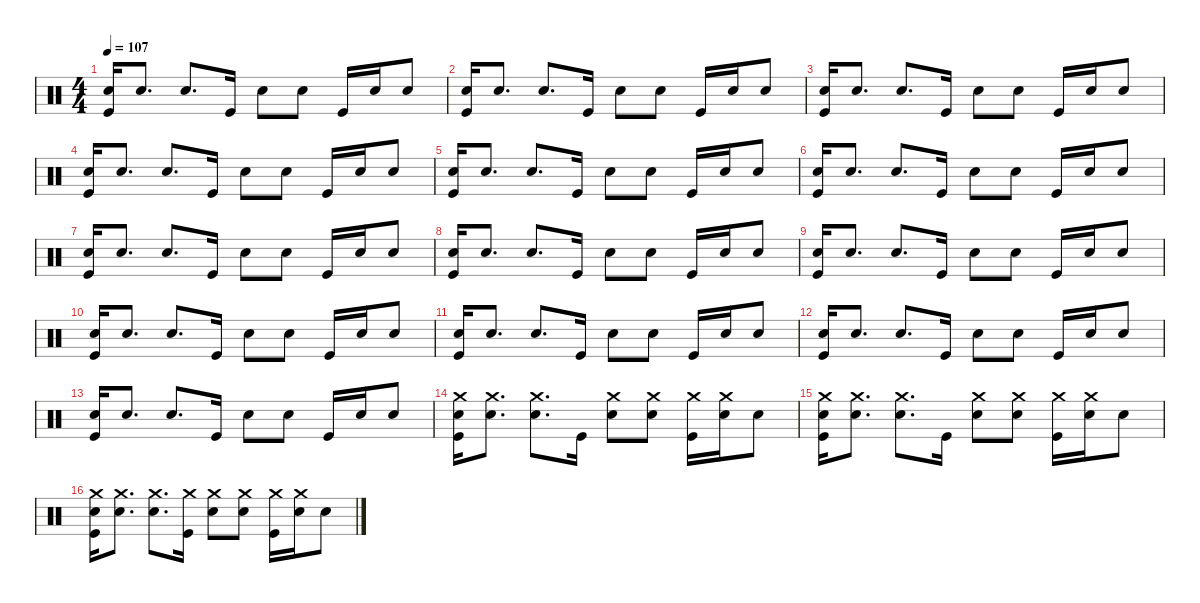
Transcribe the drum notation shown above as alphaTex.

\defaultSystemsLayout 4
\hideDynamics
\bracketExtendMode nobrackets
\singleTrackTrackNamePolicy hidden
\multiTrackTrackNamePolicy hidden
\firstSystemTrackNameMode fullname
\firstSystemTrackNameOrientation horizontal
\otherSystemsTrackNameOrientation horizontal
\track ("Mitch" "drm.") {instrument percussion}
\staff {score}
\articulation defaults
\ts (4 4)
\tempo 107
\clef neutral
\ks c
("Snare (hit) 2" "Kick (hit)").16{dy f beam Up} "Snare (hit) 2".8{d beam Up} "Snare (hit) 2".8{d beam Up} "Kick (hit)".16{beam Up} "Snare (hit) 2".8{beam Down} "Snare (hit) 2".8{beam Down} "Kick (hit)".16{beam Up} "Snare (hit) 2".16{beam Up} "Snare (hit) 2".8{beam Up} |
("Snare (hit) 2" "Kick (hit)").16{beam Up} "Snare (hit) 2".8{d beam Up} "Snare (hit) 2".8{d beam Up} "Kick (hit)".16{beam Up} "Snare (hit) 2".8{beam Down} "Snare (hit) 2".8{beam Down} "Kick (hit)".16{beam Up} "Snare (hit) 2".16{beam Up} "Snare (hit) 2".8{beam Up} |
("Snare (hit) 2" "Kick (hit)").16{beam Up} "Snare (hit) 2".8{d beam Up} "Snare (hit) 2".8{d beam Up} "Kick (hit)".16{beam Up} "Snare (hit) 2".8{beam Down} "Snare (hit) 2".8{beam Down} "Kick (hit)".16{beam Up} "Snare (hit) 2".16{beam Up} "Snare (hit) 2".8{beam Up} |
("Snare (hit) 2" "Kick (hit)").16{beam Up} "Snare (hit) 2".8{d beam Up} "Snare (hit) 2".8{d beam Up} "Kick (hit)".16{beam Up} "Snare (hit) 2".8{beam Down} "Snare (hit) 2".8{beam Down} "Kick (hit)".16{beam Up} "Snare (hit) 2".16{beam Up} "Snare (hit) 2".8{beam Up} |
("Snare (hit) 2" "Kick (hit)").16{beam Up} "Snare (hit) 2".8{d beam Up} "Snare (hit) 2".8{d beam Up} "Kick (hit)".16{beam Up} "Snare (hit) 2".8{beam Down} "Snare (hit) 2".8{beam Down} "Kick (hit)".16{beam Up} "Snare (hit) 2".16{beam Up} "Snare (hit) 2".8{beam Up} |
("Snare (hit) 2" "Kick (hit)").16{beam Up} "Snare (hit) 2".8{d beam Up} "Snare (hit) 2".8{d beam Up} "Kick (hit)".16{beam Up} "Snare (hit) 2".8{beam Down} "Snare (hit) 2".8{beam Down} "Kick (hit)".16{beam Up} "Snare (hit) 2".16{beam Up} "Snare (hit) 2".8{beam Up} |
("Snare (hit) 2" "Kick (hit)").16{beam Up} "Snare (hit) 2".8{d beam Up} "Snare (hit) 2".8{d beam Up} "Kick (hit)".16{beam Up} "Snare (hit) 2".8{beam Down} "Snare (hit) 2".8{beam Down} "Kick (hit)".16{beam Up} "Snare (hit) 2".16{beam Up} "Snare (hit) 2".8{beam Up} |
("Snare (hit) 2" "Kick (hit)").16{beam Up} "Snare (hit) 2".8{d beam Up} "Snare (hit) 2".8{d beam Up} "Kick (hit)".16{beam Up} "Snare (hit) 2".8{beam Down} "Snare (hit) 2".8{beam Down} "Kick (hit)".16{beam Up} "Snare (hit) 2".16{beam Up} "Snare (hit) 2".8{beam Up} |
("Snare (hit) 2" "Kick (hit)").16{beam Up} "Snare (hit) 2".8{d beam Up} "Snare (hit) 2".8{d beam Up} "Kick (hit)".16{beam Up} "Snare (hit) 2".8{beam Down} "Snare (hit) 2".8{beam Down} "Kick (hit)".16{beam Up} "Snare (hit) 2".16{beam Up} "Snare (hit) 2".8{beam Up} |
("Snare (hit) 2" "Kick (hit)").16{beam Up} "Snare (hit) 2".8{d beam Up} "Snare (hit) 2".8{d beam Up} "Kick (hit)".16{beam Up} "Snare (hit) 2".8{beam Down} "Snare (hit) 2".8{beam Down} "Kick (hit)".16{beam Up} "Snare (hit) 2".16{beam Up} "Snare (hit) 2".8{beam Up} |
("Snare (hit) 2" "Kick (hit)").16{beam Up} "Snare (hit) 2".8{d beam Up} "Snare (hit) 2".8{d beam Up} "Kick (hit)".16{beam Up} "Snare (hit) 2".8{beam Down} "Snare (hit) 2".8{beam Down} "Kick (hit)".16{beam Up} "Snare (hit) 2".16{beam Up} "Snare (hit) 2".8{beam Up} |
("Snare (hit) 2" "Kick (hit)").16{beam Up} "Snare (hit) 2".8{d beam Up} "Snare (hit) 2".8{d beam Up} "Kick (hit)".16{beam Up} "Snare (hit) 2".8{beam Down} "Snare (hit) 2".8{beam Down} "Kick (hit)".16{beam Up} "Snare (hit) 2".16{beam Up} "Snare (hit) 2".8{beam Up} |
("Snare (hit) 2" "Kick (hit)").16{beam Up} "Snare (hit) 2".8{d beam Up} "Snare (hit) 2".8{d beam Up} "Kick (hit)".16{beam Up} "Snare (hit) 2".8{beam Down} "Snare (hit) 2".8{beam Down} "Kick (hit)".16{beam Up} "Snare (hit) 2".16{beam Up} "Snare (hit) 2".8{beam Up} |
("Snare (hit) 2" "Crash medium (hit)" "Kick (hit)").16{beam Down} ("Snare (hit) 2" "Crash medium (hit)").8{d beam Down} ("Snare (hit) 2" "Crash medium (hit)").8{d beam Down} "Kick (hit)".16{beam Down} ("Snare (hit) 2" "Crash medium (hit)").8{beam Down} ("Snare (hit) 2" "Crash medium (hit)").8{beam Down} ("Crash medium (hit)" "Kick (hit)").16{beam Down} ("Snare (hit) 2" "Crash medium (hit)").16{beam Down} "Snare (hit) 2".8{beam Down} |
("Snare (hit) 2" "Crash medium (hit)" "Kick (hit)").16{beam Down} ("Snare (hit) 2" "Crash medium (hit)").8{d beam Down} ("Snare (hit) 2" "Crash medium (hit)").8{d beam Down} "Kick (hit)".16{beam Down} ("Snare (hit) 2" "Crash medium (hit)").8{beam Down} ("Snare (hit) 2" "Crash medium (hit)").8{beam Down} ("Crash medium (hit)" "Kick (hit)").16{beam Down} ("Snare (hit) 2" "Crash medium (hit)").16{beam Down} "Snare (hit) 2".8{beam Down} |
("Snare (hit) 2" "Crash medium (hit)" "Kick (hit)").16{beam Down} ("Snare (hit) 2" "Crash medium (hit)").8{d beam Down} ("Snare (hit) 2" "Crash medium (hit)").8{d beam Down} ("Crash medium (hit)" "Kick (hit)").16{beam Down} ("Snare (hit) 2" "Crash medium (hit)").8{beam Down} ("Snare (hit) 2" "Crash medium (hit)").8{beam Down} ("Crash medium (hit)" "Kick (hit)").16{beam Down} ("Snare (hit) 2" "Crash medium (hit)").16{beam Down} "Snare (hit) 2".8{beam Down}
